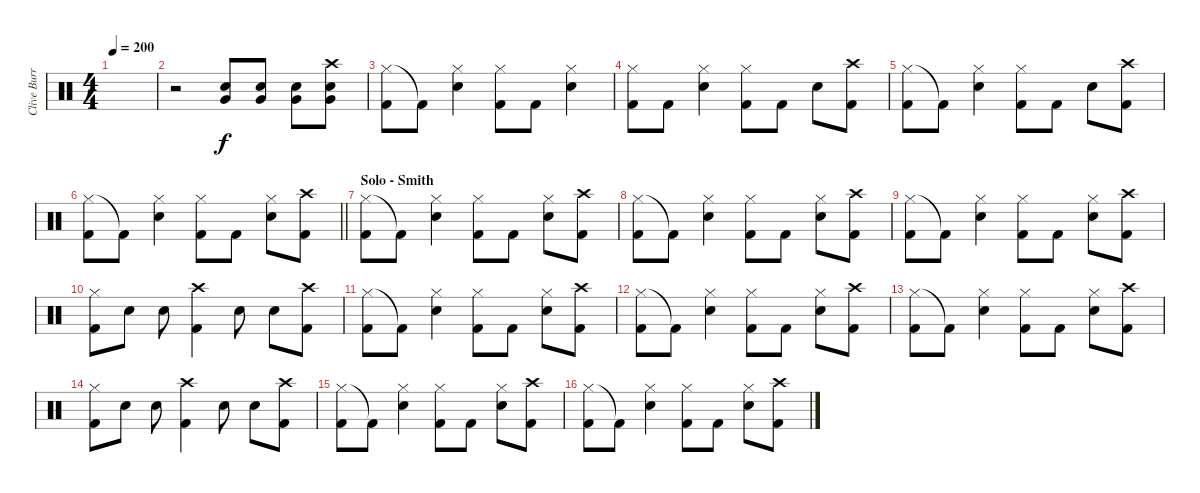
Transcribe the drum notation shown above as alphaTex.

\track ("Clive Burr" "Clive Burr") {instrument percussion}
\staff {score}
\articulation defaults
\ts (4 4)
\tempo 200
\clef neutral
\ks c
|
r.2 ("Very Low Tom (hit)" "Snare (hit) 2").8 ("Very Low Tom (hit)" "Snare (hit) 2").8 ("Very Low Tom (hit)" "Snare (hit) 2").8 ("Crash high (hit)" "Very Low Tom (hit)" "Snare (hit) 2").8 |
("Hi-Hat (closed)" "Kick (hit) 2").8 "Kick (hit) 2"{t}.8 ("Hi-Hat (closed)" "Snare (hit) 2").4 ("Hi-Hat (closed)" "Kick (hit) 2").8 "Kick (hit) 2".8 ("Hi-Hat (closed)" "Snare (hit) 2").4 |
("Hi-Hat (closed)" "Kick (hit) 2").8 "Kick (hit) 2".8 ("Hi-Hat (closed)" "Snare (hit) 2").4 ("Hi-Hat (closed)" "Kick (hit) 2").8 "Kick (hit) 2".8 "Snare (hit) 2".8 ("Crash high (hit)" "Kick (hit) 2").8 |
("Hi-Hat (closed)" "Kick (hit) 2").8 "Kick (hit) 2"{t}.8 ("Hi-Hat (closed)" "Snare (hit) 2").4 ("Hi-Hat (closed)" "Kick (hit) 2").8 "Kick (hit) 2".8 "Snare (hit) 2".8 ("Crash high (hit)" "Kick (hit) 2").8 |
\barLineRight lightlight
("Hi-Hat (closed)" "Kick (hit) 2").8 "Kick (hit) 2"{t}.8 ("Hi-Hat (closed)" "Snare (hit) 2").4 ("Hi-Hat (closed)" "Kick (hit) 2").8 "Kick (hit) 2".8 ("Hi-Hat (closed)" "Snare (hit) 2").8 ("Crash high (hit)" "Kick (hit) 2").8 |
\section ("" "Solo - Smith")
("Hi-Hat (closed)" "Kick (hit) 2").8 "Kick (hit) 2"{t}.8 ("Hi-Hat (closed)" "Snare (hit) 2").4 ("Hi-Hat (closed)" "Kick (hit) 2").8 "Kick (hit) 2".8 ("Hi-Hat (closed)" "Snare (hit) 2").8 ("Crash high (hit)" "Kick (hit) 2").8 |
("Hi-Hat (closed)" "Kick (hit) 2").8 "Kick (hit) 2"{t}.8 ("Hi-Hat (closed)" "Snare (hit) 2").4 ("Hi-Hat (closed)" "Kick (hit) 2").8 "Kick (hit) 2".8 ("Hi-Hat (closed)" "Snare (hit) 2").8 ("Crash high (hit)" "Kick (hit) 2").8 |
("Hi-Hat (closed)" "Kick (hit) 2").8 "Kick (hit) 2"{t}.8 ("Hi-Hat (closed)" "Snare (hit) 2").4 ("Hi-Hat (closed)" "Kick (hit) 2").8 "Kick (hit) 2".8 ("Hi-Hat (closed)" "Snare (hit) 2").8 ("Crash high (hit)" "Kick (hit) 2").8 |
("Hi-Hat (closed)" "Kick (hit) 2").8 "Snare (hit) 2".8 "Snare (hit) 2".8 ("Crash high (hit)" "Kick (hit) 2").4 "Snare (hit) 2".8 "Snare (hit) 2".8 ("Crash high (hit)" "Kick (hit) 2").8 |
("Hi-Hat (closed)" "Kick (hit) 2").8 "Kick (hit) 2"{t}.8 ("Hi-Hat (closed)" "Snare (hit) 2").4 ("Hi-Hat (closed)" "Kick (hit) 2").8 "Kick (hit) 2".8 ("Hi-Hat (closed)" "Snare (hit) 2").8 ("Crash high (hit)" "Kick (hit) 2").8 |
("Hi-Hat (closed)" "Kick (hit) 2").8 "Kick (hit) 2"{t}.8 ("Hi-Hat (closed)" "Snare (hit) 2").4 ("Hi-Hat (closed)" "Kick (hit) 2").8 "Kick (hit) 2".8 ("Hi-Hat (closed)" "Snare (hit) 2").8 ("Crash high (hit)" "Kick (hit) 2").8 |
("Hi-Hat (closed)" "Kick (hit) 2").8 "Kick (hit) 2"{t}.8 ("Hi-Hat (closed)" "Snare (hit) 2").4 ("Hi-Hat (closed)" "Kick (hit) 2").8 "Kick (hit) 2".8 ("Hi-Hat (closed)" "Snare (hit) 2").8 ("Crash high (hit)" "Kick (hit) 2").8 |
("Hi-Hat (closed)" "Kick (hit) 2").8 "Snare (hit) 2".8 "Snare (hit) 2".8 ("Crash high (hit)" "Kick (hit) 2").4 "Snare (hit) 2".8 "Snare (hit) 2".8 ("Crash high (hit)" "Kick (hit) 2").8 |
("Hi-Hat (closed)" "Kick (hit) 2").8 "Kick (hit) 2"{t}.8 ("Hi-Hat (closed)" "Snare (hit) 2").4 ("Hi-Hat (closed)" "Kick (hit) 2").8 "Kick (hit) 2".8 ("Hi-Hat (closed)" "Snare (hit) 2").8 ("Crash high (hit)" "Kick (hit) 2").8 |
("Hi-Hat (closed)" "Kick (hit) 2").8 "Kick (hit) 2"{t}.8 ("Hi-Hat (closed)" "Snare (hit) 2").4 ("Hi-Hat (closed)" "Kick (hit) 2").8 "Kick (hit) 2".8 ("Hi-Hat (closed)" "Snare (hit) 2").8 ("Crash high (hit)" "Kick (hit) 2").8
